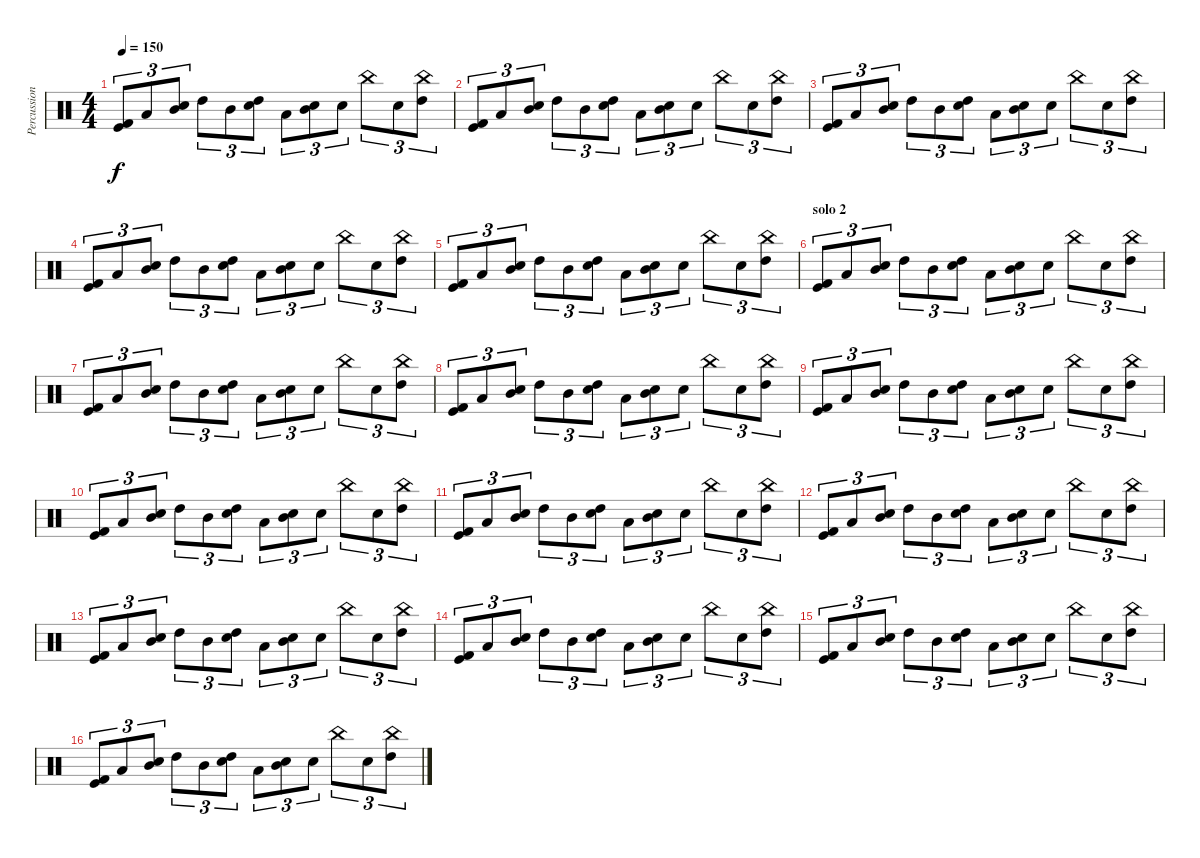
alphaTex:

\track ("Percussion" "Percussion") {instrument percussion}
\staff {score}
\articulation defaults
\ts (4 4)
\tempo 150
\clef neutral
\ks c
("Kick (hit) 2" "Kick (hit)").8{tu (3 2) dy f} "Low Tom (hit)".8{tu (3 2)} ("Mid Tom (hit)" "Snare (hit) 2").8{tu (3 2)} "High Tom (hit)".8{tu (3 2)} "Mid Tom (hit)".8{tu (3 2)} ("High Tom (hit)" "Snare (hit) 2").8{tu (3 2)} "Low Tom (hit)".8{tu (3 2)} ("Mid Tom (hit)" "Snare (hit) 2").8{tu (3 2)} "Snare (hit) 2".8{tu (3 2)} "China (hit)".8{tu (3 2)} "Snare (hit) 2".8{tu (3 2)} ("High Tom (hit)" "China (hit)").8{tu (3 2)} |
("Kick (hit) 2" "Kick (hit)").8{tu (3 2)} "Low Tom (hit)".8{tu (3 2)} ("Mid Tom (hit)" "Snare (hit) 2").8{tu (3 2)} "High Tom (hit)".8{tu (3 2)} "Mid Tom (hit)".8{tu (3 2)} ("High Tom (hit)" "Snare (hit) 2").8{tu (3 2)} "Low Tom (hit)".8{tu (3 2)} ("Mid Tom (hit)" "Snare (hit) 2").8{tu (3 2)} "Snare (hit) 2".8{tu (3 2)} "China (hit)".8{tu (3 2)} "Snare (hit) 2".8{tu (3 2)} ("High Tom (hit)" "China (hit)").8{tu (3 2)} |
("Kick (hit) 2" "Kick (hit)").8{tu (3 2)} "Low Tom (hit)".8{tu (3 2)} ("Mid Tom (hit)" "Snare (hit) 2").8{tu (3 2)} "High Tom (hit)".8{tu (3 2)} "Mid Tom (hit)".8{tu (3 2)} ("High Tom (hit)" "Snare (hit) 2").8{tu (3 2)} "Low Tom (hit)".8{tu (3 2)} ("Mid Tom (hit)" "Snare (hit) 2").8{tu (3 2)} "Snare (hit) 2".8{tu (3 2)} "China (hit)".8{tu (3 2)} "Snare (hit) 2".8{tu (3 2)} ("High Tom (hit)" "China (hit)").8{tu (3 2)} |
("Kick (hit) 2" "Kick (hit)").8{tu (3 2)} "Low Tom (hit)".8{tu (3 2)} ("Mid Tom (hit)" "Snare (hit) 2").8{tu (3 2)} "High Tom (hit)".8{tu (3 2)} "Mid Tom (hit)".8{tu (3 2)} ("High Tom (hit)" "Snare (hit) 2").8{tu (3 2)} "Low Tom (hit)".8{tu (3 2)} ("Mid Tom (hit)" "Snare (hit) 2").8{tu (3 2)} "Snare (hit) 2".8{tu (3 2)} "China (hit)".8{tu (3 2)} "Snare (hit) 2".8{tu (3 2)} ("High Tom (hit)" "China (hit)").8{tu (3 2)} |
("Kick (hit) 2" "Kick (hit)").8{tu (3 2)} "Low Tom (hit)".8{tu (3 2)} ("Mid Tom (hit)" "Snare (hit) 2").8{tu (3 2)} "High Tom (hit)".8{tu (3 2)} "Mid Tom (hit)".8{tu (3 2)} ("High Tom (hit)" "Snare (hit) 2").8{tu (3 2)} "Low Tom (hit)".8{tu (3 2)} ("Mid Tom (hit)" "Snare (hit) 2").8{tu (3 2)} "Snare (hit) 2".8{tu (3 2)} "China (hit)".8{tu (3 2)} "Snare (hit) 2".8{tu (3 2)} ("High Tom (hit)" "China (hit)").8{tu (3 2)} |
\section ("" "solo 2")
("Kick (hit) 2" "Kick (hit)").8{tu (3 2)} "Low Tom (hit)".8{tu (3 2)} ("Mid Tom (hit)" "Snare (hit) 2").8{tu (3 2)} "High Tom (hit)".8{tu (3 2)} "Mid Tom (hit)".8{tu (3 2)} ("High Tom (hit)" "Snare (hit) 2").8{tu (3 2)} "Low Tom (hit)".8{tu (3 2)} ("Mid Tom (hit)" "Snare (hit) 2").8{tu (3 2)} "Snare (hit) 2".8{tu (3 2)} "China (hit)".8{tu (3 2)} "Snare (hit) 2".8{tu (3 2)} ("High Tom (hit)" "China (hit)").8{tu (3 2)} |
("Kick (hit) 2" "Kick (hit)").8{tu (3 2)} "Low Tom (hit)".8{tu (3 2)} ("Mid Tom (hit)" "Snare (hit) 2").8{tu (3 2)} "High Tom (hit)".8{tu (3 2)} "Mid Tom (hit)".8{tu (3 2)} ("High Tom (hit)" "Snare (hit) 2").8{tu (3 2)} "Low Tom (hit)".8{tu (3 2)} ("Mid Tom (hit)" "Snare (hit) 2").8{tu (3 2)} "Snare (hit) 2".8{tu (3 2)} "China (hit)".8{tu (3 2)} "Snare (hit) 2".8{tu (3 2)} ("High Tom (hit)" "China (hit)").8{tu (3 2)} |
("Kick (hit) 2" "Kick (hit)").8{tu (3 2)} "Low Tom (hit)".8{tu (3 2)} ("Mid Tom (hit)" "Snare (hit) 2").8{tu (3 2)} "High Tom (hit)".8{tu (3 2)} "Mid Tom (hit)".8{tu (3 2)} ("High Tom (hit)" "Snare (hit) 2").8{tu (3 2)} "Low Tom (hit)".8{tu (3 2)} ("Mid Tom (hit)" "Snare (hit) 2").8{tu (3 2)} "Snare (hit) 2".8{tu (3 2)} "China (hit)".8{tu (3 2)} "Snare (hit) 2".8{tu (3 2)} ("High Tom (hit)" "China (hit)").8{tu (3 2)} |
("Kick (hit) 2" "Kick (hit)").8{tu (3 2)} "Low Tom (hit)".8{tu (3 2)} ("Mid Tom (hit)" "Snare (hit) 2").8{tu (3 2)} "High Tom (hit)".8{tu (3 2)} "Mid Tom (hit)".8{tu (3 2)} ("High Tom (hit)" "Snare (hit) 2").8{tu (3 2)} "Low Tom (hit)".8{tu (3 2)} ("Mid Tom (hit)" "Snare (hit) 2").8{tu (3 2)} "Snare (hit) 2".8{tu (3 2)} "China (hit)".8{tu (3 2)} "Snare (hit) 2".8{tu (3 2)} ("High Tom (hit)" "China (hit)").8{tu (3 2)} |
("Kick (hit) 2" "Kick (hit)").8{tu (3 2)} "Low Tom (hit)".8{tu (3 2)} ("Mid Tom (hit)" "Snare (hit) 2").8{tu (3 2)} "High Tom (hit)".8{tu (3 2)} "Mid Tom (hit)".8{tu (3 2)} ("High Tom (hit)" "Snare (hit) 2").8{tu (3 2)} "Low Tom (hit)".8{tu (3 2)} ("Mid Tom (hit)" "Snare (hit) 2").8{tu (3 2)} "Snare (hit) 2".8{tu (3 2)} "China (hit)".8{tu (3 2)} "Snare (hit) 2".8{tu (3 2)} ("High Tom (hit)" "China (hit)").8{tu (3 2)} |
("Kick (hit) 2" "Kick (hit)").8{tu (3 2)} "Low Tom (hit)".8{tu (3 2)} ("Mid Tom (hit)" "Snare (hit) 2").8{tu (3 2)} "High Tom (hit)".8{tu (3 2)} "Mid Tom (hit)".8{tu (3 2)} ("High Tom (hit)" "Snare (hit) 2").8{tu (3 2)} "Low Tom (hit)".8{tu (3 2)} ("Mid Tom (hit)" "Snare (hit) 2").8{tu (3 2)} "Snare (hit) 2".8{tu (3 2)} "China (hit)".8{tu (3 2)} "Snare (hit) 2".8{tu (3 2)} ("High Tom (hit)" "China (hit)").8{tu (3 2)} |
("Kick (hit) 2" "Kick (hit)").8{tu (3 2)} "Low Tom (hit)".8{tu (3 2)} ("Mid Tom (hit)" "Snare (hit) 2").8{tu (3 2)} "High Tom (hit)".8{tu (3 2)} "Mid Tom (hit)".8{tu (3 2)} ("High Tom (hit)" "Snare (hit) 2").8{tu (3 2)} "Low Tom (hit)".8{tu (3 2)} ("Mid Tom (hit)" "Snare (hit) 2").8{tu (3 2)} "Snare (hit) 2".8{tu (3 2)} "China (hit)".8{tu (3 2)} "Snare (hit) 2".8{tu (3 2)} ("High Tom (hit)" "China (hit)").8{tu (3 2)} |
("Kick (hit) 2" "Kick (hit)").8{tu (3 2)} "Low Tom (hit)".8{tu (3 2)} ("Mid Tom (hit)" "Snare (hit) 2").8{tu (3 2)} "High Tom (hit)".8{tu (3 2)} "Mid Tom (hit)".8{tu (3 2)} ("High Tom (hit)" "Snare (hit) 2").8{tu (3 2)} "Low Tom (hit)".8{tu (3 2)} ("Mid Tom (hit)" "Snare (hit) 2").8{tu (3 2)} "Snare (hit) 2".8{tu (3 2)} "China (hit)".8{tu (3 2)} "Snare (hit) 2".8{tu (3 2)} ("High Tom (hit)" "China (hit)").8{tu (3 2)} |
("Kick (hit) 2" "Kick (hit)").8{tu (3 2)} "Low Tom (hit)".8{tu (3 2)} ("Mid Tom (hit)" "Snare (hit) 2").8{tu (3 2)} "High Tom (hit)".8{tu (3 2)} "Mid Tom (hit)".8{tu (3 2)} ("High Tom (hit)" "Snare (hit) 2").8{tu (3 2)} "Low Tom (hit)".8{tu (3 2)} ("Mid Tom (hit)" "Snare (hit) 2").8{tu (3 2)} "Snare (hit) 2".8{tu (3 2)} "China (hit)".8{tu (3 2)} "Snare (hit) 2".8{tu (3 2)} ("High Tom (hit)" "China (hit)").8{tu (3 2)} |
("Kick (hit) 2" "Kick (hit)").8{tu (3 2)} "Low Tom (hit)".8{tu (3 2)} ("Mid Tom (hit)" "Snare (hit) 2").8{tu (3 2)} "High Tom (hit)".8{tu (3 2)} "Mid Tom (hit)".8{tu (3 2)} ("High Tom (hit)" "Snare (hit) 2").8{tu (3 2)} "Low Tom (hit)".8{tu (3 2)} ("Mid Tom (hit)" "Snare (hit) 2").8{tu (3 2)} "Snare (hit) 2".8{tu (3 2)} "China (hit)".8{tu (3 2)} "Snare (hit) 2".8{tu (3 2)} ("High Tom (hit)" "China (hit)").8{tu (3 2)} |
("Kick (hit) 2" "Kick (hit)").8{tu (3 2)} "Low Tom (hit)".8{tu (3 2)} ("Mid Tom (hit)" "Snare (hit) 2").8{tu (3 2)} "High Tom (hit)".8{tu (3 2)} "Mid Tom (hit)".8{tu (3 2)} ("High Tom (hit)" "Snare (hit) 2").8{tu (3 2)} "Low Tom (hit)".8{tu (3 2)} ("Mid Tom (hit)" "Snare (hit) 2").8{tu (3 2)} "Snare (hit) 2".8{tu (3 2)} "China (hit)".8{tu (3 2)} "Snare (hit) 2".8{tu (3 2)} ("High Tom (hit)" "China (hit)").8{tu (3 2)}
